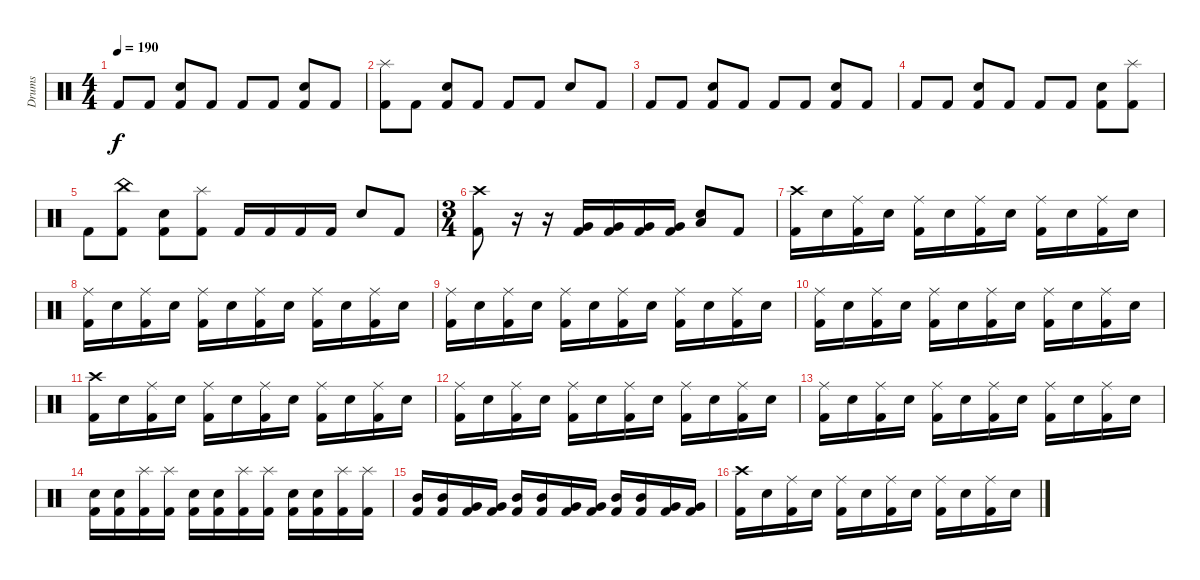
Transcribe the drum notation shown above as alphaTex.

\track ("Drums" "Drums") {instrument percussion}
\staff {score}
\articulation defaults
\ts (4 4)
\tempo 190
\clef neutral
\ks c "Kick (hit) 2".8{dy f} "Kick (hit) 2".8
("Snare (hit) 2" "Kick (hit) 2").8 "Kick (hit) 2".8 "Kick (hit) 2".8 "Kick (hit) 2".8 ("Snare (hit) 2" "Kick (hit) 2").8 "Kick (hit) 2".8 |
("Splash (hit)" "Kick (hit) 2").8 "Kick (hit) 2".8 ("Snare (hit) 2" "Kick (hit) 2").8 "Kick (hit) 2".8 "Kick (hit) 2".8 "Kick (hit) 2".8 "Snare (hit) 2".8 "Kick (hit) 2".8 |
"Kick (hit) 2".8 "Kick (hit) 2".8 ("Snare (hit) 2" "Kick (hit) 2").8 "Kick (hit) 2".8 "Kick (hit) 2".8 "Kick (hit) 2".8 ("Snare (hit) 2" "Kick (hit) 2").8 "Kick (hit) 2".8 |
"Kick (hit) 2".8 "Kick (hit) 2".8 ("Snare (hit) 2" "Kick (hit) 2").8 "Kick (hit) 2".8 "Kick (hit) 2".8 "Kick (hit) 2".8 ("Snare (hit) 2" "Kick (hit) 2").8 ("Splash (hit)" "Kick (hit) 2").8 |
"Kick (hit) 2".8 ("China (hit)" "Kick (hit) 2").8 ("Snare (hit) 2" "Kick (hit) 2").8 ("Splash (hit)" "Kick (hit) 2").8 "Kick (hit) 2".16 "Kick (hit) 2".16 "Kick (hit) 2".16 "Kick (hit) 2".16 "Snare (hit) 2".8 "Kick (hit) 2".8 |
\ts (3 4)
("Crash high (hit)" "Kick (hit) 2").8 r.16 r.16 ("Very Low Tom (hit)" "Kick (hit) 2").16 ("Very Low Tom (hit)" "Kick (hit) 2").16 ("Very Low Tom (hit)" "Kick (hit) 2").16 ("Very Low Tom (hit)" "Kick (hit) 2").16 ("Low Tom (hit)" "Snare (hit) 2").8 "Kick (hit) 2".8 |
("Crash high (hit)" "Kick (hit) 2").16 "Snare (hit) 2".16 ("Ride (middle)" "Kick (hit) 2").16 "Snare (hit) 2".16 ("Ride (middle)" "Kick (hit) 2").16 "Snare (hit) 2".16 ("Ride (middle)" "Kick (hit) 2").16 "Snare (hit) 2".16 ("Ride (middle)" "Kick (hit) 2").16 "Snare (hit) 2".16 ("Ride (middle)" "Kick (hit) 2").16 "Snare (hit) 2".16 |
("Ride (middle)" "Kick (hit) 2").16 "Snare (hit) 2".16 ("Ride (middle)" "Kick (hit) 2").16 "Snare (hit) 2".16 ("Ride (middle)" "Kick (hit) 2").16 "Snare (hit) 2".16 ("Ride (middle)" "Kick (hit) 2").16 "Snare (hit) 2".16 ("Ride (middle)" "Kick (hit) 2").16 "Snare (hit) 2".16 ("Ride (middle)" "Kick (hit) 2").16 "Snare (hit) 2".16 |
("Ride (middle)" "Kick (hit) 2").16 "Snare (hit) 2".16 ("Ride (middle)" "Kick (hit) 2").16 "Snare (hit) 2".16 ("Ride (middle)" "Kick (hit) 2").16 "Snare (hit) 2".16 ("Ride (middle)" "Kick (hit) 2").16 "Snare (hit) 2".16 ("Ride (middle)" "Kick (hit) 2").16 "Snare (hit) 2".16 ("Ride (middle)" "Kick (hit) 2").16 "Snare (hit) 2".16 |
("Ride (middle)" "Kick (hit) 2").16 "Snare (hit) 2".16 ("Ride (middle)" "Kick (hit) 2").16 "Snare (hit) 2".16 ("Ride (middle)" "Kick (hit) 2").16 "Snare (hit) 2".16 ("Ride (middle)" "Kick (hit) 2").16 "Snare (hit) 2".16 ("Ride (middle)" "Kick (hit) 2").16 "Snare (hit) 2".16 ("Ride (middle)" "Kick (hit) 2").16 "Snare (hit) 2".16 |
("Crash high (hit)" "Kick (hit) 2").16 "Snare (hit) 2".16 ("Ride (middle)" "Kick (hit) 2").16 "Snare (hit) 2".16 ("Ride (middle)" "Kick (hit) 2").16 "Snare (hit) 2".16 ("Ride (middle)" "Kick (hit) 2").16 "Snare (hit) 2".16 ("Ride (middle)" "Kick (hit) 2").16 "Snare (hit) 2".16 ("Ride (middle)" "Kick (hit) 2").16 "Snare (hit) 2".16 |
("Ride (middle)" "Kick (hit) 2").16 "Snare (hit) 2".16 ("Ride (middle)" "Kick (hit) 2").16 "Snare (hit) 2".16 ("Ride (middle)" "Kick (hit) 2").16 "Snare (hit) 2".16 ("Ride (middle)" "Kick (hit) 2").16 "Snare (hit) 2".16 ("Ride (middle)" "Kick (hit) 2").16 "Snare (hit) 2".16 ("Ride (middle)" "Kick (hit) 2").16 "Snare (hit) 2".16 |
("Ride (middle)" "Kick (hit) 2").16 "Snare (hit) 2".16 ("Ride (middle)" "Kick (hit) 2").16 "Snare (hit) 2".16 ("Ride (middle)" "Kick (hit) 2").16 "Snare (hit) 2".16 ("Ride (middle)" "Kick (hit) 2").16 "Snare (hit) 2".16 ("Ride (middle)" "Kick (hit) 2").16 "Snare (hit) 2".16 ("Ride (middle)" "Kick (hit) 2").16 "Snare (hit) 2".16 |
("Snare (hit) 2" "Kick (hit) 2").16 ("Snare (hit) 2" "Kick (hit) 2").16 ("Splash (hit)" "Kick (hit) 2").16 ("Splash (hit)" "Kick (hit) 2").16 ("Snare (hit) 2" "Kick (hit) 2").16 ("Snare (hit) 2" "Kick (hit) 2").16 ("Splash (hit)" "Kick (hit) 2").16 ("Splash (hit)" "Kick (hit) 2").16 ("Snare (hit) 2" "Kick (hit) 2").16 ("Snare (hit) 2" "Kick (hit) 2").16 ("Splash (hit)" "Kick (hit) 2").16 ("Splash (hit)" "Kick (hit) 2").16 |
("Mid Tom (hit)" "Kick (hit) 2").16 ("Mid Tom (hit)" "Kick (hit) 2").16 ("Very Low Tom (hit)" "Kick (hit) 2").16 ("Very Low Tom (hit)" "Kick (hit) 2").16 ("Mid Tom (hit)" "Kick (hit) 2").16 ("Mid Tom (hit)" "Kick (hit) 2").16 ("Very Low Tom (hit)" "Kick (hit) 2").16 ("Very Low Tom (hit)" "Kick (hit) 2").16 ("Mid Tom (hit)" "Kick (hit) 2").16 ("Mid Tom (hit)" "Kick (hit) 2").16 ("Very Low Tom (hit)" "Kick (hit) 2").16 ("Very Low Tom (hit)" "Kick (hit) 2").16 |
("Crash high (hit)" "Kick (hit) 2").16 "Snare (hit) 2".16 ("Ride (middle)" "Kick (hit) 2").16 "Snare (hit) 2".16 ("Ride (middle)" "Kick (hit) 2").16 "Snare (hit) 2".16 ("Ride (middle)" "Kick (hit) 2").16 "Snare (hit) 2".16 ("Ride (middle)" "Kick (hit) 2").16 "Snare (hit) 2".16 ("Ride (middle)" "Kick (hit) 2").16 "Snare (hit) 2".16
